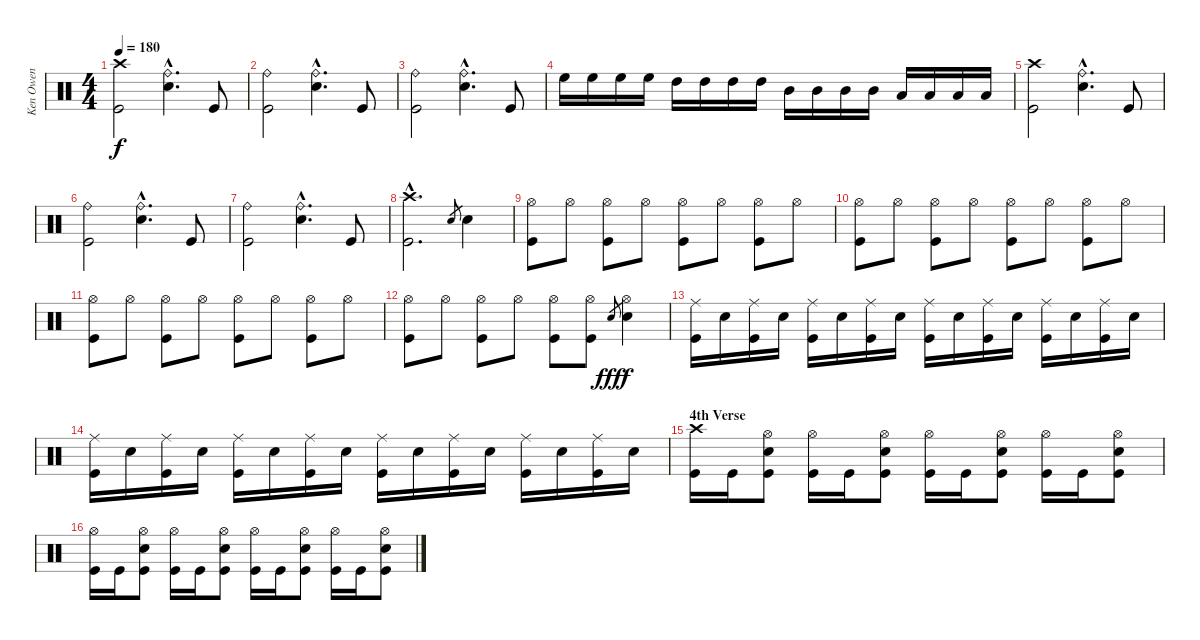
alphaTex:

\track ("Ken Owen" "Ken Owen") {instrument percussion}
\staff {score}
\articulation defaults
\ts (4 4)
\tempo 180
\clef neutral
\ks c
("Crash high (hit)" "Kick (hit)").2{dy f} ("Ride (bell)"{hac} "Snare (hit) 2"{hac}).4{d} "Kick (hit)".8 |
("Ride (bell)" "Kick (hit)").2 ("Ride (bell)"{hac} "Snare (hit) 2"{hac}).4{d} "Kick (hit)".8 |
("Ride (bell)" "Kick (hit)").2 ("Ride (bell)"{hac} "Snare (hit) 2"{hac}).4{d} "Kick (hit)".8 |
"High Floor Tom (hit)".16 "High Floor Tom (hit)".16 "High Floor Tom (hit)".16 "High Floor Tom (hit)".16 "High Tom (hit)".16 "High Tom (hit)".16 "High Tom (hit)".16 "High Tom (hit)".16 "Mid Tom (hit)".16 "Mid Tom (hit)".16 "Mid Tom (hit)".16 "Mid Tom (hit)".16 "Low Tom (hit)".16 "Low Tom (hit)".16 "Low Tom (hit)".16 "Low Tom (hit)".16 |
("Crash high (hit)" "Kick (hit)").2 ("Ride (bell)"{hac} "Snare (hit) 2"{hac}).4{d} "Kick (hit)".8 |
("Ride (bell)" "Kick (hit)").2 ("Ride (bell)"{hac} "Snare (hit) 2"{hac}).4{d} "Kick (hit)".8 |
("Ride (bell)" "Kick (hit)").2 ("Ride (bell)"{hac} "Snare (hit) 2"{hac}).4{d} "Kick (hit)".8 |
("Crash high (hit)"{hac} "Kick (hit)"{hac}).2{d} "Snare (hit) 2".8{gr} "Snare (hit) 2".4 |
("Hi-Hat (open)" "Kick (hit)").8 "Hi-Hat (open)".8 ("Hi-Hat (open)" "Kick (hit)").8 "Hi-Hat (open)".8 ("Hi-Hat (open)" "Kick (hit)").8 "Hi-Hat (open)".8 ("Hi-Hat (open)" "Kick (hit)").8 "Hi-Hat (open)".8 |
("Hi-Hat (open)" "Kick (hit)").8 "Hi-Hat (open)".8 ("Hi-Hat (open)" "Kick (hit)").8 "Hi-Hat (open)".8 ("Hi-Hat (open)" "Kick (hit)").8 "Hi-Hat (open)".8 ("Hi-Hat (open)" "Kick (hit)").8 "Hi-Hat (open)".8 |
("Hi-Hat (open)" "Kick (hit)").8 "Hi-Hat (open)".8 ("Hi-Hat (open)" "Kick (hit)").8 "Hi-Hat (open)".8 ("Hi-Hat (open)" "Kick (hit)").8 "Hi-Hat (open)".8 ("Hi-Hat (open)" "Kick (hit)").8 "Hi-Hat (open)".8 |
("Hi-Hat (open)" "Kick (hit)").8 "Hi-Hat (open)".8 ("Hi-Hat (open)" "Kick (hit)").8 "Hi-Hat (open)".8 ("Hi-Hat (open)" "Kick (hit)").8 ("Hi-Hat (open)" "Kick (hit)").8 "Snare (hit) 2".8{gr dy fff} ("Hi-Hat (open)" "Snare (hit) 2").4{dy f} |
("Ride (middle)" "Kick (hit)").16 "Snare (hit) 2".16 ("Ride (middle)" "Kick (hit)").16 "Snare (hit) 2".16 ("Ride (middle)" "Kick (hit)").16 "Snare (hit) 2".16 ("Ride (middle)" "Kick (hit)").16 "Snare (hit) 2".16 ("Ride (middle)" "Kick (hit)").16 "Snare (hit) 2".16 ("Ride (middle)" "Kick (hit)").16 "Snare (hit) 2".16 ("Ride (middle)" "Kick (hit)").16 "Snare (hit) 2".16 ("Ride (middle)" "Kick (hit)").16 "Snare (hit) 2".16 |
("Ride (middle)" "Kick (hit)").16 "Snare (hit) 2".16 ("Ride (middle)" "Kick (hit)").16 "Snare (hit) 2".16 ("Ride (middle)" "Kick (hit)").16 "Snare (hit) 2".16 ("Ride (middle)" "Kick (hit)").16 "Snare (hit) 2".16 ("Ride (middle)" "Kick (hit)").16 "Snare (hit) 2".16 ("Ride (middle)" "Kick (hit)").16 "Snare (hit) 2".16 ("Ride (middle)" "Kick (hit)").16 "Snare (hit) 2".16 ("Ride (middle)" "Kick (hit)").16 "Snare (hit) 2".16 |
\section ("" "4th Verse")
("Crash high (hit)" "Kick (hit)").16 "Kick (hit)".16 ("Hi-Hat (open)" "Snare (hit) 2" "Kick (hit)").8 ("Hi-Hat (open)" "Kick (hit)").16 "Kick (hit)".16 ("Hi-Hat (open)" "Snare (hit) 2" "Kick (hit)").8 ("Hi-Hat (open)" "Kick (hit)").16 "Kick (hit)".16 ("Hi-Hat (open)" "Snare (hit) 2" "Kick (hit)").8 ("Hi-Hat (open)" "Kick (hit)").16 "Kick (hit)".16 ("Hi-Hat (open)" "Snare (hit) 2" "Kick (hit)").8 |
("Hi-Hat (open)" "Kick (hit)").16 "Kick (hit)".16 ("Hi-Hat (open)" "Snare (hit) 2" "Kick (hit)").8 ("Hi-Hat (open)" "Kick (hit)").16 "Kick (hit)".16 ("Hi-Hat (open)" "Snare (hit) 2" "Kick (hit)").8 ("Hi-Hat (open)" "Kick (hit)").16 "Kick (hit)".16 ("Hi-Hat (open)" "Snare (hit) 2" "Kick (hit)").8 ("Hi-Hat (open)" "Kick (hit)").16 "Kick (hit)".16 ("Hi-Hat (open)" "Snare (hit) 2" "Kick (hit)").8
